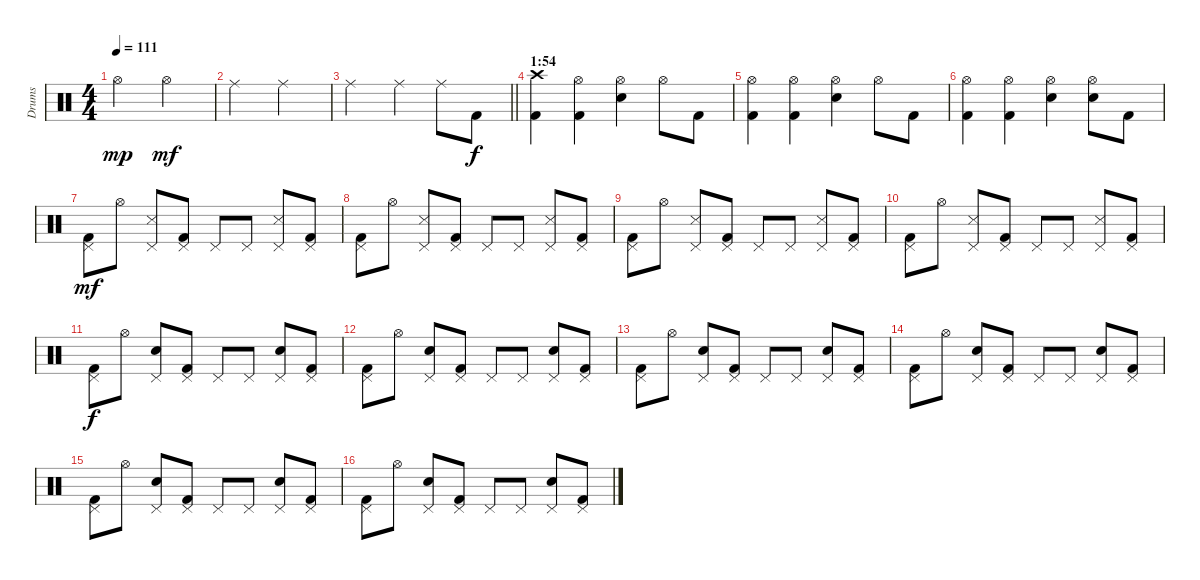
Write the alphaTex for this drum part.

\track ("Drums" "Drums") {instrument percussion}
\staff {score}
\articulation defaults
\ts (4 4)
\tempo 111
\clef neutral
\ks c "Hi-Hat (open)".2{dy mp} "Hi-Hat (open)".2{dy mf}
|
"Ride (middle)".2 "Ride (middle)".2 |
\barLineRight lightlight "Ride (middle)".2 "Ride (middle)".4 "Ride (middle)".8 "Kick (hit) 2".8{dy f}
|
\section ("" "1:54")
("Crash high (hit)" "Kick (hit) 2").4 ("Hi-Hat (open)" "Kick (hit) 2").4 ("Hi-Hat (open)" "Snare (hit) 2").4 "Hi-Hat (open)".8 "Kick (hit) 2".8 |
("Hi-Hat (open)" "Kick (hit) 2").4 ("Hi-Hat (open)" "Kick (hit) 2").4 ("Hi-Hat (open)" "Snare (hit) 2").4 "Hi-Hat (open)".8 "Kick (hit) 2".8 |
("Hi-Hat (open)" "Kick (hit) 2").4 ("Hi-Hat (open)" "Kick (hit) 2").4 ("Hi-Hat (open)" "Snare (hit) 2").4 ("Hi-Hat (open)" "Snare (hit) 2").8 "Kick (hit) 2".8 |
("Pedal Hi-Hat (hit)" "Kick (hit) 2").8{dy mf} "Hi-Hat (open)".8 ("Pedal Hi-Hat (hit)" "Snare (side stick) 3").8 ("Pedal Hi-Hat (hit)" "Kick (hit) 2").8 "Pedal Hi-Hat (hit)".8 "Pedal Hi-Hat (hit)".8 ("Pedal Hi-Hat (hit)" "Snare (side stick) 3").8 ("Pedal Hi-Hat (hit)" "Kick (hit) 2").8 |
("Pedal Hi-Hat (hit)" "Kick (hit) 2").8 "Hi-Hat (open)".8 ("Pedal Hi-Hat (hit)" "Snare (side stick) 3").8 ("Pedal Hi-Hat (hit)" "Kick (hit) 2").8 "Pedal Hi-Hat (hit)".8 "Pedal Hi-Hat (hit)".8 ("Pedal Hi-Hat (hit)" "Snare (side stick) 3").8 ("Pedal Hi-Hat (hit)" "Kick (hit) 2").8 |
("Pedal Hi-Hat (hit)" "Kick (hit) 2").8 "Hi-Hat (open)".8 ("Pedal Hi-Hat (hit)" "Snare (side stick) 3").8 ("Pedal Hi-Hat (hit)" "Kick (hit) 2").8 "Pedal Hi-Hat (hit)".8 "Pedal Hi-Hat (hit)".8 ("Pedal Hi-Hat (hit)" "Snare (side stick) 3").8 ("Pedal Hi-Hat (hit)" "Kick (hit) 2").8 |
("Pedal Hi-Hat (hit)" "Kick (hit) 2").8 "Hi-Hat (open)".8 ("Pedal Hi-Hat (hit)" "Snare (side stick) 3").8 ("Pedal Hi-Hat (hit)" "Kick (hit) 2").8 "Pedal Hi-Hat (hit)".8 "Pedal Hi-Hat (hit)".8 ("Pedal Hi-Hat (hit)" "Snare (side stick) 3").8 ("Pedal Hi-Hat (hit)" "Kick (hit) 2").8 |
("Pedal Hi-Hat (hit)" "Kick (hit) 2").8{dy f} "Hi-Hat (open)".8 ("Pedal Hi-Hat (hit)" "Snare (hit) 2").8 ("Pedal Hi-Hat (hit)" "Kick (hit) 2").8 "Pedal Hi-Hat (hit)".8 "Pedal Hi-Hat (hit)".8 ("Pedal Hi-Hat (hit)" "Snare (hit) 2").8 ("Pedal Hi-Hat (hit)" "Kick (hit) 2").8 |
("Pedal Hi-Hat (hit)" "Kick (hit) 2").8 "Hi-Hat (open)".8 ("Pedal Hi-Hat (hit)" "Snare (hit) 2").8 ("Pedal Hi-Hat (hit)" "Kick (hit) 2").8 "Pedal Hi-Hat (hit)".8 "Pedal Hi-Hat (hit)".8 ("Pedal Hi-Hat (hit)" "Snare (hit) 2").8 ("Pedal Hi-Hat (hit)" "Kick (hit) 2").8 |
("Pedal Hi-Hat (hit)" "Kick (hit) 2").8 "Hi-Hat (open)".8 ("Pedal Hi-Hat (hit)" "Snare (hit) 2").8 ("Pedal Hi-Hat (hit)" "Kick (hit) 2").8 "Pedal Hi-Hat (hit)".8 "Pedal Hi-Hat (hit)".8 ("Pedal Hi-Hat (hit)" "Snare (hit) 2").8 ("Pedal Hi-Hat (hit)" "Kick (hit) 2").8 |
("Pedal Hi-Hat (hit)" "Kick (hit) 2").8 "Hi-Hat (open)".8 ("Pedal Hi-Hat (hit)" "Snare (hit) 2").8 ("Pedal Hi-Hat (hit)" "Kick (hit) 2").8 "Pedal Hi-Hat (hit)".8 "Pedal Hi-Hat (hit)".8 ("Pedal Hi-Hat (hit)" "Snare (hit) 2").8 ("Pedal Hi-Hat (hit)" "Kick (hit) 2").8 |
("Pedal Hi-Hat (hit)" "Kick (hit) 2").8 "Hi-Hat (open)".8 ("Pedal Hi-Hat (hit)" "Snare (hit) 2").8 ("Pedal Hi-Hat (hit)" "Kick (hit) 2").8 "Pedal Hi-Hat (hit)".8 "Pedal Hi-Hat (hit)".8 ("Pedal Hi-Hat (hit)" "Snare (hit) 2").8 ("Pedal Hi-Hat (hit)" "Kick (hit) 2").8 |
("Pedal Hi-Hat (hit)" "Kick (hit) 2").8 "Hi-Hat (open)".8 ("Pedal Hi-Hat (hit)" "Snare (hit) 2").8 ("Pedal Hi-Hat (hit)" "Kick (hit) 2").8 "Pedal Hi-Hat (hit)".8 "Pedal Hi-Hat (hit)".8 ("Pedal Hi-Hat (hit)" "Snare (hit) 2").8 ("Pedal Hi-Hat (hit)" "Kick (hit) 2").8
